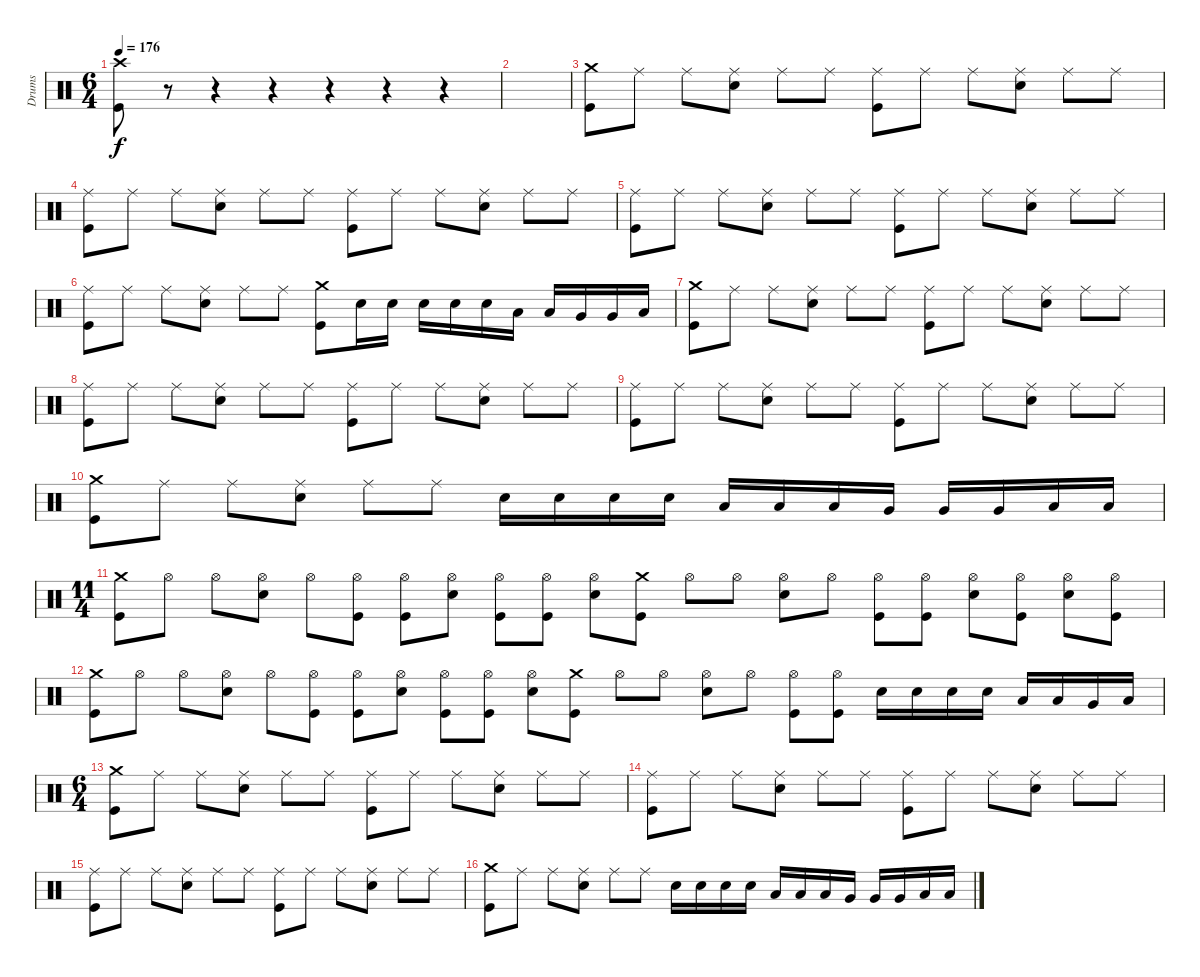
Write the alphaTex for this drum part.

\track ("Drums" "Drums") {instrument percussion}
\staff {score}
\articulation defaults
\ts (6 4)
\tempo 176
\clef neutral
\ks c
("Crash high (hit)" "Kick (hit)").8{dy f} r.8 r.4 r.4 r.4 r.4 r.4 |
|
("Crash medium (hit)" "Kick (hit)").8 "Ride (middle)".8 "Ride (middle)".8 ("Ride (middle)" "Electric Snare (hit)").8 "Ride (middle)".8 "Ride (middle)".8 ("Ride (middle)" "Kick (hit)").8 "Ride (middle)".8 "Ride (middle)".8 ("Ride (middle)" "Electric Snare (hit)").8 "Ride (middle)".8 "Ride (middle)".8 |
("Ride (middle)" "Kick (hit)").8 "Ride (middle)".8 "Ride (middle)".8 ("Ride (middle)" "Electric Snare (hit)").8 "Ride (middle)".8 "Ride (middle)".8 ("Ride (middle)" "Kick (hit)").8 "Ride (middle)".8 "Ride (middle)".8 ("Ride (middle)" "Electric Snare (hit)").8 "Ride (middle)".8 "Ride (middle)".8 |
("Ride (middle)" "Kick (hit)").8 "Ride (middle)".8 "Ride (middle)".8 ("Ride (middle)" "Electric Snare (hit)").8 "Ride (middle)".8 "Ride (middle)".8 ("Ride (middle)" "Kick (hit)").8 "Ride (middle)".8 "Ride (middle)".8 ("Ride (middle)" "Electric Snare (hit)").8 "Ride (middle)".8 "Ride (middle)".8 |
("Ride (middle)" "Kick (hit)").8 "Ride (middle)".8 "Ride (middle)".8 ("Ride (middle)" "Electric Snare (hit)").8 "Ride (middle)".8 "Ride (middle)".8 ("Crash medium (hit)" "Kick (hit)").8 "Electric Snare (hit)".16 "Electric Snare (hit)".16 "Electric Snare (hit)".16 "Electric Snare (hit)".16 "Electric Snare (hit)".16 "Low Tom (hit)".16 "Low Tom (hit)".16 "Very Low Tom (hit)".16 "Very Low Tom (hit)".16 "Low Floor Tom (hit)".16 |
("Crash medium (hit)" "Kick (hit)").8 "Ride (middle)".8 "Ride (middle)".8 ("Ride (middle)" "Electric Snare (hit)").8 "Ride (middle)".8 "Ride (middle)".8 ("Ride (middle)" "Kick (hit)").8 "Ride (middle)".8 "Ride (middle)".8 ("Ride (middle)" "Electric Snare (hit)").8 "Ride (middle)".8 "Ride (middle)".8 |
("Ride (middle)" "Kick (hit)").8 "Ride (middle)".8 "Ride (middle)".8 ("Ride (middle)" "Electric Snare (hit)").8 "Ride (middle)".8 "Ride (middle)".8 ("Ride (middle)" "Kick (hit)").8 "Ride (middle)".8 "Ride (middle)".8 ("Ride (middle)" "Electric Snare (hit)").8 "Ride (middle)".8 "Ride (middle)".8 |
("Ride (middle)" "Kick (hit)").8 "Ride (middle)".8 "Ride (middle)".8 ("Ride (middle)" "Electric Snare (hit)").8 "Ride (middle)".8 "Ride (middle)".8 ("Ride (middle)" "Kick (hit)").8 "Ride (middle)".8 "Ride (middle)".8 ("Ride (middle)" "Electric Snare (hit)").8 "Ride (middle)".8 "Ride (middle)".8 |
("Crash medium (hit)" "Kick (hit)").8 "Ride (middle)".8 "Ride (middle)".8 ("Ride (middle)" "Electric Snare (hit)").8 "Ride (middle)".8 "Ride (middle)".8 "Electric Snare (hit)".16 "Electric Snare (hit)".16 "Electric Snare (hit)".16 "Electric Snare (hit)".16 "Low Tom (hit)".16 "Low Tom (hit)".16 "Low Tom (hit)".16 "Very Low Tom (hit)".16 "Very Low Tom (hit)".16 "Very Low Tom (hit)".16 "Low Floor Tom (hit)".16 "Low Floor Tom (hit)".16 |
\ts (11 4)
("Crash medium (hit)" "Kick (hit)").8 "Hi-Hat (open)".8 "Hi-Hat (open)".8 ("Hi-Hat (open)" "Electric Snare (hit)").8 "Hi-Hat (open)".8 ("Hi-Hat (open)" "Kick (hit)").8 ("Hi-Hat (open)" "Kick (hit)").8 ("Hi-Hat (open)" "Electric Snare (hit)").8 ("Hi-Hat (open)" "Kick (hit)").8 ("Hi-Hat (open)" "Kick (hit)").8 ("Hi-Hat (open)" "Electric Snare (hit)").8 ("Crash medium (hit)" "Kick (hit)").8 "Hi-Hat (open)".8 "Hi-Hat (open)".8 ("Hi-Hat (open)" "Electric Snare (hit)").8 "Hi-Hat (open)".8 ("Hi-Hat (open)" "Kick (hit)").8 ("Hi-Hat (open)" "Kick (hit)").8 ("Hi-Hat (open)" "Electric Snare (hit)").8 ("Hi-Hat (open)" "Kick (hit)").8 ("Hi-Hat (open)" "Electric Snare (hit)").8 ("Hi-Hat (open)" "Kick (hit)").8 |
("Crash medium (hit)" "Kick (hit)").8 "Hi-Hat (open)".8 "Hi-Hat (open)".8 ("Hi-Hat (open)" "Electric Snare (hit)").8 "Hi-Hat (open)".8 ("Hi-Hat (open)" "Kick (hit)").8 ("Hi-Hat (open)" "Kick (hit)").8 ("Hi-Hat (open)" "Electric Snare (hit)").8 ("Hi-Hat (open)" "Kick (hit)").8 ("Hi-Hat (open)" "Kick (hit)").8 ("Hi-Hat (open)" "Electric Snare (hit)").8 ("Crash medium (hit)" "Kick (hit)").8 "Hi-Hat (open)".8 "Hi-Hat (open)".8 ("Hi-Hat (open)" "Electric Snare (hit)").8 "Hi-Hat (open)".8 ("Hi-Hat (open)" "Kick (hit)").8 ("Hi-Hat (open)" "Kick (hit)").8 "Electric Snare (hit)".16 "Electric Snare (hit)".16 "Electric Snare (hit)".16 "Electric Snare (hit)".16 "Low Tom (hit)".16 "Low Tom (hit)".16 "Very Low Tom (hit)".16 "Low Floor Tom (hit)".16 |
\ts (6 4)
("Crash medium (hit)" "Kick (hit)").8 "Ride (middle)".8 "Ride (middle)".8 ("Ride (middle)" "Electric Snare (hit)").8 "Ride (middle)".8 "Ride (middle)".8 ("Ride (middle)" "Kick (hit)").8 "Ride (middle)".8 "Ride (middle)".8 ("Ride (middle)" "Electric Snare (hit)").8 "Ride (middle)".8 "Ride (middle)".8 |
("Ride (middle)" "Kick (hit)").8 "Ride (middle)".8 "Ride (middle)".8 ("Ride (middle)" "Electric Snare (hit)").8 "Ride (middle)".8 "Ride (middle)".8 ("Ride (middle)" "Kick (hit)").8 "Ride (middle)".8 "Ride (middle)".8 ("Ride (middle)" "Electric Snare (hit)").8 "Ride (middle)".8 "Ride (middle)".8 |
("Ride (middle)" "Kick (hit)").8 "Ride (middle)".8 "Ride (middle)".8 ("Ride (middle)" "Electric Snare (hit)").8 "Ride (middle)".8 "Ride (middle)".8 ("Ride (middle)" "Kick (hit)").8 "Ride (middle)".8 "Ride (middle)".8 ("Ride (middle)" "Electric Snare (hit)").8 "Ride (middle)".8 "Ride (middle)".8 |
("Crash medium (hit)" "Kick (hit)").8 "Ride (middle)".8 "Ride (middle)".8 ("Ride (middle)" "Electric Snare (hit)").8 "Ride (middle)".8 "Ride (middle)".8 "Electric Snare (hit)".16 "Electric Snare (hit)".16 "Electric Snare (hit)".16 "Electric Snare (hit)".16 "Low Tom (hit)".16 "Low Tom (hit)".16 "Low Tom (hit)".16 "Very Low Tom (hit)".16 "Very Low Tom (hit)".16 "Very Low Tom (hit)".16 "Low Floor Tom (hit)".16 "Low Floor Tom (hit)".16
